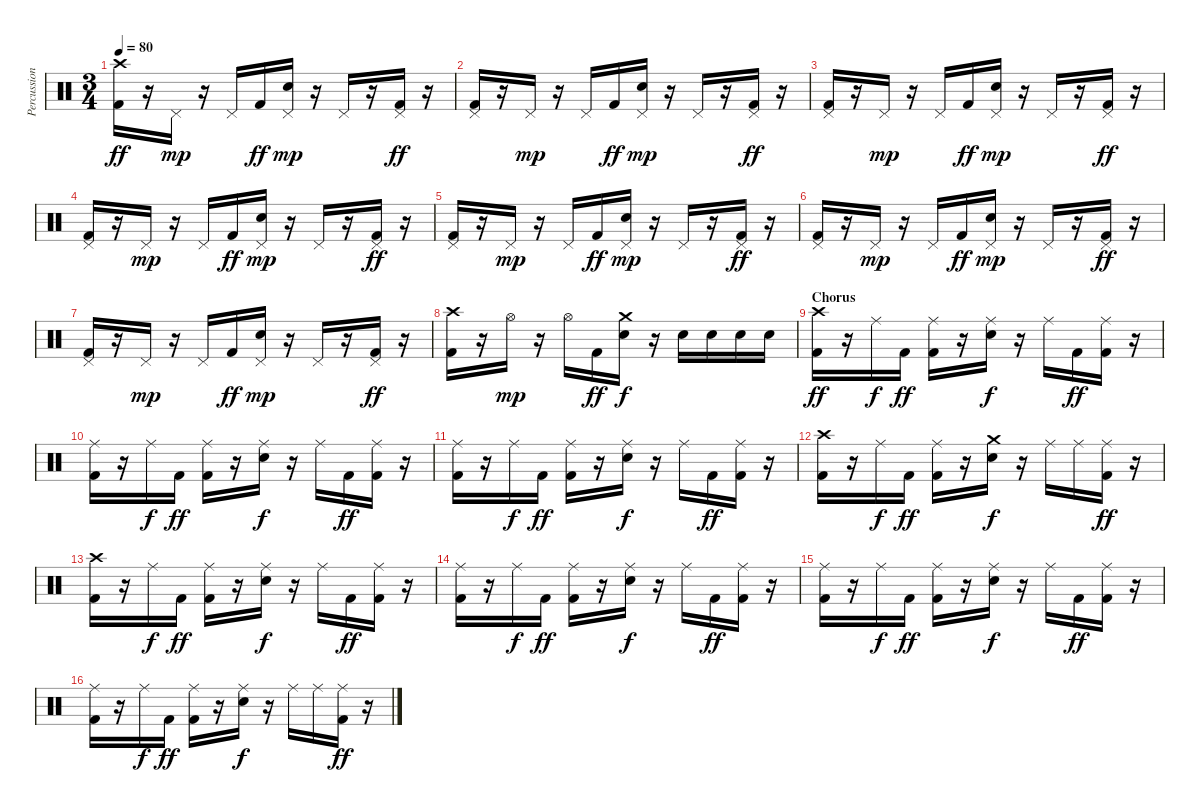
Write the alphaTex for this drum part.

\track ("Percussion" "Percussion") {instrument percussion}
\staff {score}
\articulation defaults
\ts (3 4)
\tempo 80
\clef neutral
\ks c
("Crash high (hit)" "Kick (hit) 2").16{dy ff} r.16 "Pedal Hi-Hat (hit)".16{dy mp} r.16 "Pedal Hi-Hat (hit)".16 "Kick (hit) 2".16{dy ff} ("Pedal Hi-Hat (hit)" "Electric Snare (hit)").16{dy mp} r.16 "Pedal Hi-Hat (hit)".16 r.16 ("Pedal Hi-Hat (hit)" "Kick (hit) 2").16{dy ff} r.16 |
("Pedal Hi-Hat (hit)" "Kick (hit) 2").16 r.16 "Pedal Hi-Hat (hit)".16{dy mp} r.16 "Pedal Hi-Hat (hit)".16 "Kick (hit) 2".16{dy ff} ("Pedal Hi-Hat (hit)" "Electric Snare (hit)").16{dy mp} r.16 "Pedal Hi-Hat (hit)".16 r.16 ("Pedal Hi-Hat (hit)" "Kick (hit) 2").16{dy ff} r.16 |
("Pedal Hi-Hat (hit)" "Kick (hit) 2").16 r.16 "Pedal Hi-Hat (hit)".16{dy mp} r.16 "Pedal Hi-Hat (hit)".16 "Kick (hit) 2".16{dy ff} ("Pedal Hi-Hat (hit)" "Electric Snare (hit)").16{dy mp} r.16 "Pedal Hi-Hat (hit)".16 r.16 ("Pedal Hi-Hat (hit)" "Kick (hit) 2").16{dy ff} r.16 |
("Pedal Hi-Hat (hit)" "Kick (hit) 2").16 r.16 "Pedal Hi-Hat (hit)".16{dy mp} r.16 "Pedal Hi-Hat (hit)".16 "Kick (hit) 2".16{dy ff} ("Pedal Hi-Hat (hit)" "Electric Snare (hit)").16{dy mp} r.16 "Pedal Hi-Hat (hit)".16 r.16 ("Pedal Hi-Hat (hit)" "Kick (hit) 2").16{dy ff} r.16 |
("Pedal Hi-Hat (hit)" "Kick (hit) 2").16 r.16 "Pedal Hi-Hat (hit)".16{dy mp} r.16 "Pedal Hi-Hat (hit)".16 "Kick (hit) 2".16{dy ff} ("Pedal Hi-Hat (hit)" "Electric Snare (hit)").16{dy mp} r.16 "Pedal Hi-Hat (hit)".16 r.16 ("Pedal Hi-Hat (hit)" "Kick (hit) 2").16{dy ff} r.16 |
("Pedal Hi-Hat (hit)" "Kick (hit) 2").16 r.16 "Pedal Hi-Hat (hit)".16{dy mp} r.16 "Pedal Hi-Hat (hit)".16 "Kick (hit) 2".16{dy ff} ("Pedal Hi-Hat (hit)" "Electric Snare (hit)").16{dy mp} r.16 "Pedal Hi-Hat (hit)".16 r.16 ("Pedal Hi-Hat (hit)" "Kick (hit) 2").16{dy ff} r.16 |
("Pedal Hi-Hat (hit)" "Kick (hit) 2").16 r.16 "Pedal Hi-Hat (hit)".16{dy mp} r.16 "Pedal Hi-Hat (hit)".16 "Kick (hit) 2".16{dy ff} ("Pedal Hi-Hat (hit)" "Electric Snare (hit)").16{dy mp} r.16 "Pedal Hi-Hat (hit)".16 r.16 ("Pedal Hi-Hat (hit)" "Kick (hit) 2").16{dy ff} r.16 |
("Crash high (hit)" "Kick (hit) 2").16 r.16 "Hi-Hat (open)".16{dy mp} r.16 "Hi-Hat (open)".16 "Kick (hit) 2".16{dy ff} ("Crash medium (hit)" "Electric Snare (hit)").16{dy f} r.16 "Electric Snare (hit)".16 "Electric Snare (hit)".16 "Electric Snare (hit)".16 "Electric Snare (hit)".16 |
\section ("" "Chorus")
("Crash high (hit)" "Kick (hit) 2").16{dy ff} r.16 "Ride (middle)".16{dy f} "Kick (hit) 2".16{dy ff} ("Ride (middle)" "Kick (hit) 2").16 r.16 ("Ride (middle)" "Electric Snare (hit)").16{dy f} r.16 "Ride (middle)".16 "Kick (hit) 2".16{dy ff} ("Ride (middle)" "Kick (hit) 2").16 r.16 |
("Ride (middle)" "Kick (hit) 2").16 r.16 "Ride (middle)".16{dy f} "Kick (hit) 2".16{dy ff} ("Ride (middle)" "Kick (hit) 2").16 r.16 ("Ride (middle)" "Electric Snare (hit)").16{dy f} r.16 "Ride (middle)".16 "Kick (hit) 2".16{dy ff} ("Ride (middle)" "Kick (hit) 2").16 r.16 |
("Ride (middle)" "Kick (hit) 2").16 r.16 "Ride (middle)".16{dy f} "Kick (hit) 2".16{dy ff} ("Ride (middle)" "Kick (hit) 2").16 r.16 ("Ride (middle)" "Electric Snare (hit)").16{dy f} r.16 "Ride (middle)".16 "Kick (hit) 2".16{dy ff} ("Ride (middle)" "Kick (hit) 2").16 r.16 |
("Crash high (hit)" "Kick (hit) 2").16 r.16 "Ride (middle)".16{dy f} "Kick (hit) 2".16{dy ff} ("Ride (middle)" "Kick (hit) 2").16 r.16 ("Crash medium (hit)" "Electric Snare (hit)").16{dy f} r.16 "Ride (middle)".16 "Ride (middle)".16 ("Ride (middle)" "Kick (hit) 2").16{dy ff} r.16 |
("Crash high (hit)" "Kick (hit) 2").16 r.16 "Ride (middle)".16{dy f} "Kick (hit) 2".16{dy ff} ("Ride (middle)" "Kick (hit) 2").16 r.16 ("Ride (middle)" "Electric Snare (hit)").16{dy f} r.16 "Ride (middle)".16 "Kick (hit) 2".16{dy ff} ("Ride (middle)" "Kick (hit) 2").16 r.16 |
("Ride (middle)" "Kick (hit) 2").16 r.16 "Ride (middle)".16{dy f} "Kick (hit) 2".16{dy ff} ("Ride (middle)" "Kick (hit) 2").16 r.16 ("Ride (middle)" "Electric Snare (hit)").16{dy f} r.16 "Ride (middle)".16 "Kick (hit) 2".16{dy ff} ("Ride (middle)" "Kick (hit) 2").16 r.16 |
("Ride (middle)" "Kick (hit) 2").16 r.16 "Ride (middle)".16{dy f} "Kick (hit) 2".16{dy ff} ("Ride (middle)" "Kick (hit) 2").16 r.16 ("Ride (middle)" "Electric Snare (hit)").16{dy f} r.16 "Ride (middle)".16 "Kick (hit) 2".16{dy ff} ("Ride (middle)" "Kick (hit) 2").16 r.16 |
("Ride (middle)" "Kick (hit) 2").16 r.16 "Ride (middle)".16{dy f} "Kick (hit) 2".16{dy ff} ("Ride (middle)" "Kick (hit) 2").16 r.16 ("Ride (middle)" "Electric Snare (hit)").16{dy f} r.16 "Ride (middle)".16 "Ride (middle)".16 ("Ride (middle)" "Kick (hit) 2").16{dy ff} r.16
